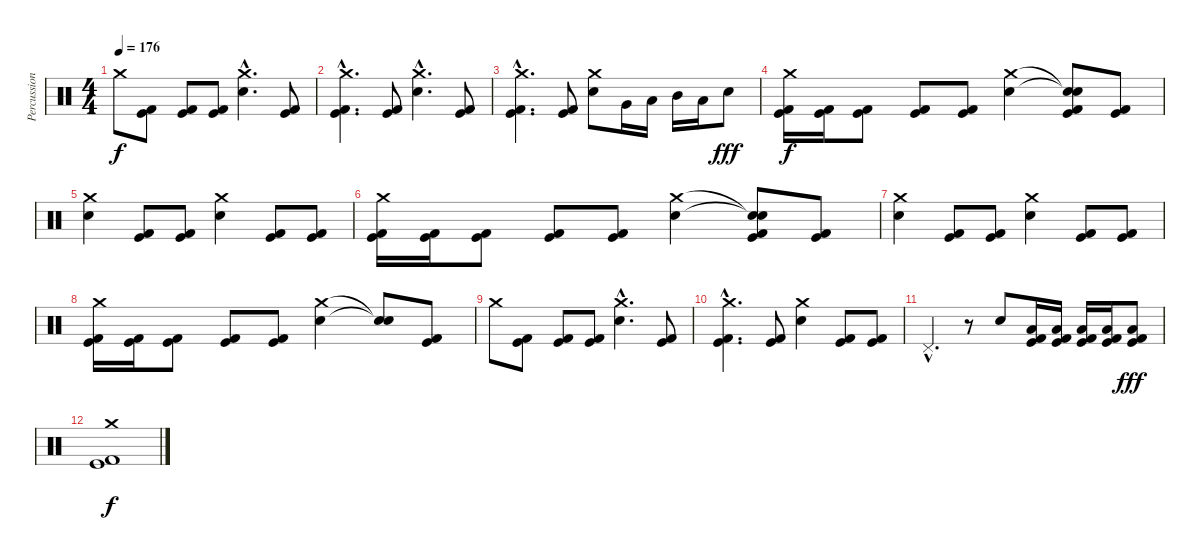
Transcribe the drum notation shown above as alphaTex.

\track ("Percussions" "Percussion") {instrument percussion}
\staff {score}
\articulation defaults
\ts (4 4)
\tempo 176
\clef neutral
\ks c "Crash medium (hit)".8{dy f}
("Kick (hit)" "Kick (hit) 2").8 ("Kick (hit)" "Kick (hit) 2").8 ("Kick (hit)" "Kick (hit) 2").8 ("Crash medium (hit)"{hac} "Electric Snare (hit)"{hac}).4{d} ("Kick (hit)" "Kick (hit) 2").8 |
("Crash medium (hit)"{hac} "Kick (hit)"{hac} "Kick (hit) 2"{hac}).4{d} ("Kick (hit)" "Kick (hit) 2").8 ("Crash medium (hit)"{hac} "Electric Snare (hit)"{hac}).4{d} ("Kick (hit)" "Kick (hit) 2").8 |
("Crash medium (hit)"{hac} "Kick (hit)"{hac} "Kick (hit) 2"{hac}).4{d} ("Kick (hit)" "Kick (hit) 2").8 ("Crash medium (hit)" "Electric Snare (hit)").8 "Very Low Tom (hit)".16 "Low Tom (hit)".16 "Mid Tom (hit)".16 "Low Tom (hit)".16 "Electric Snare (hit)".8{dy fff} |
("Crash medium (hit)" "Kick (hit)" "Kick (hit) 2").16{dy f} ("Kick (hit)" "Kick (hit) 2").16 ("Kick (hit)" "Kick (hit) 2").8 ("Kick (hit)" "Kick (hit) 2").8 ("Kick (hit)" "Kick (hit) 2").8 ("Crash medium (hit)" "Electric Snare (hit)").4 ("Snare (hit)"{t} "Snare (hit)"{t} "Kick (hit)" "Kick (hit) 2").8 ("Kick (hit)" "Kick (hit) 2").8 |
("Crash medium (hit)" "Electric Snare (hit)").4 ("Kick (hit)" "Kick (hit) 2").8 ("Kick (hit)" "Kick (hit) 2").8 ("Crash medium (hit)" "Electric Snare (hit)").4 ("Kick (hit)" "Kick (hit) 2").8 ("Kick (hit)" "Kick (hit) 2").8 |
("Crash medium (hit)" "Kick (hit)" "Kick (hit) 2").16 ("Kick (hit)" "Kick (hit) 2").16 ("Kick (hit)" "Kick (hit) 2").8 ("Kick (hit)" "Kick (hit) 2").8 ("Kick (hit)" "Kick (hit) 2").8 ("Crash medium (hit)" "Electric Snare (hit)").4 ("Snare (hit)"{t} "Snare (hit)"{t} "Kick (hit)" "Kick (hit) 2").8 ("Kick (hit)" "Kick (hit) 2").8 |
("Crash medium (hit)" "Electric Snare (hit)").4 ("Kick (hit)" "Kick (hit) 2").8 ("Kick (hit)" "Kick (hit) 2").8 ("Crash medium (hit)" "Electric Snare (hit)").4 ("Kick (hit)" "Kick (hit) 2").8 ("Kick (hit)" "Kick (hit) 2").8 |
("Crash medium (hit)" "Kick (hit)" "Kick (hit) 2").16 ("Kick (hit)" "Kick (hit) 2").16 ("Kick (hit)" "Kick (hit) 2").8 ("Kick (hit)" "Kick (hit) 2").8 ("Kick (hit)" "Kick (hit) 2").8 ("Crash medium (hit)" "Electric Snare (hit)").4 ("Snare (hit)"{t} "Snare (hit)"{t}).8 ("Kick (hit)" "Kick (hit) 2").8 |
"Crash medium (hit)".8 ("Kick (hit)" "Kick (hit) 2").8 ("Kick (hit)" "Kick (hit) 2").8 ("Kick (hit)" "Kick (hit) 2").8 ("Crash medium (hit)"{hac} "Electric Snare (hit)"{hac}).4{d} ("Kick (hit)" "Kick (hit) 2").8 |
("Crash medium (hit)"{hac} "Kick (hit)"{hac} "Kick (hit) 2"{hac}).4{d} ("Kick (hit)" "Kick (hit) 2").8 ("Crash medium (hit)" "Electric Snare (hit)").4 ("Kick (hit)" "Kick (hit) 2").8 ("Kick (hit)" "Kick (hit) 2").8 |
"Pedal Hi-Hat (hit)"{hac}.4{d} r.8 "Electric Snare (hit)".8 ("Low Tom (hit)" "Kick (hit)" "Kick (hit) 2").16 ("Low Tom (hit)" "Kick (hit)" "Kick (hit) 2").16 ("Low Floor Tom (hit)" "Kick (hit)" "Kick (hit) 2").16 ("Low Floor Tom (hit)" "Kick (hit)" "Kick (hit) 2").16 ("Low Floor Tom (hit)" "Kick (hit)" "Kick (hit) 2").8{dy fff} |
("Crash medium (hit)" "Kick (hit)" "Kick (hit) 2").1{dy f}
